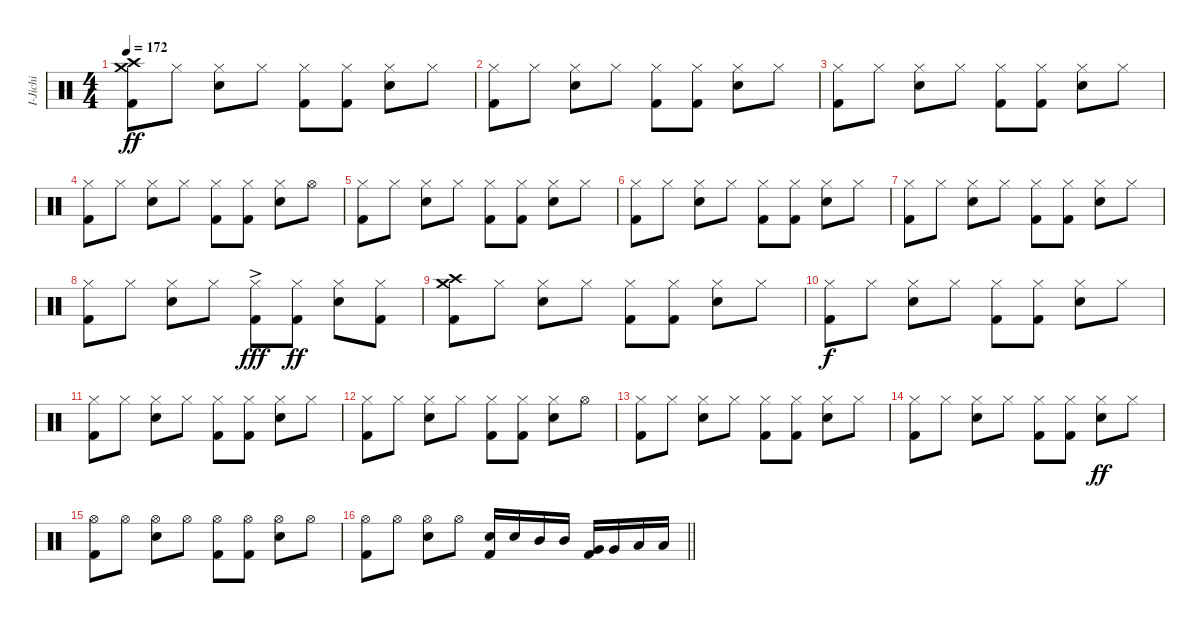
\track ("I-Jichi" "I-Jichi") {instrument percussion}
\staff {score}
\articulation defaults
\ts (4 4)
\tempo 172
\clef neutral
\ks c
("Crash high (hit)" "Crash medium (hit)" "Kick (hit) 2").8{dy ff} "Hi-Hat (closed)".8 ("Hi-Hat (closed)" "Electric Snare (hit)").8 "Hi-Hat (closed)".8 ("Hi-Hat (closed)" "Kick (hit) 2").8 ("Hi-Hat (closed)" "Kick (hit) 2").8 ("Hi-Hat (closed)" "Electric Snare (hit)").8 "Hi-Hat (closed)".8 |
("Hi-Hat (closed)" "Kick (hit) 2").8 "Hi-Hat (closed)".8 ("Hi-Hat (closed)" "Electric Snare (hit)").8 "Hi-Hat (closed)".8 ("Hi-Hat (closed)" "Kick (hit) 2").8 ("Hi-Hat (closed)" "Kick (hit) 2").8 ("Hi-Hat (closed)" "Electric Snare (hit)").8 "Hi-Hat (closed)".8 |
("Hi-Hat (closed)" "Kick (hit) 2").8 "Hi-Hat (closed)".8 ("Hi-Hat (closed)" "Electric Snare (hit)").8 "Hi-Hat (closed)".8 ("Hi-Hat (closed)" "Kick (hit) 2").8 ("Hi-Hat (closed)" "Kick (hit) 2").8 ("Hi-Hat (closed)" "Electric Snare (hit)").8 "Hi-Hat (closed)".8 |
("Hi-Hat (closed)" "Kick (hit) 2").8 "Hi-Hat (closed)".8 ("Hi-Hat (closed)" "Electric Snare (hit)").8 "Hi-Hat (closed)".8 ("Hi-Hat (closed)" "Kick (hit) 2").8 ("Hi-Hat (closed)" "Kick (hit) 2").8 ("Hi-Hat (closed)" "Electric Snare (hit)").8 "Hi-Hat (open)".8 |
("Hi-Hat (closed)" "Kick (hit) 2").8 "Hi-Hat (closed)".8 ("Hi-Hat (closed)" "Electric Snare (hit)").8 "Hi-Hat (closed)".8 ("Hi-Hat (closed)" "Kick (hit) 2").8 ("Hi-Hat (closed)" "Kick (hit) 2").8 ("Hi-Hat (closed)" "Electric Snare (hit)").8 "Hi-Hat (closed)".8 |
("Hi-Hat (closed)" "Kick (hit) 2").8 "Hi-Hat (closed)".8 ("Hi-Hat (closed)" "Electric Snare (hit)").8 "Hi-Hat (closed)".8 ("Hi-Hat (closed)" "Kick (hit) 2").8 ("Hi-Hat (closed)" "Kick (hit) 2").8 ("Hi-Hat (closed)" "Electric Snare (hit)").8 "Hi-Hat (closed)".8 |
("Hi-Hat (closed)" "Kick (hit) 2").8 "Hi-Hat (closed)".8 ("Hi-Hat (closed)" "Electric Snare (hit)").8 "Hi-Hat (closed)".8 ("Hi-Hat (closed)" "Kick (hit) 2").8 ("Hi-Hat (closed)" "Kick (hit) 2").8 ("Hi-Hat (closed)" "Electric Snare (hit)").8 "Hi-Hat (closed)".8 |
("Hi-Hat (closed)" "Kick (hit) 2").8 "Hi-Hat (closed)".8 ("Hi-Hat (closed)" "Electric Snare (hit)").8 "Hi-Hat (closed)".8 ("Hi-Hat (closed)"{ac} "Kick (hit) 2").8{dy fff} ("Hi-Hat (closed)" "Kick (hit) 2").8{dy ff} ("Hi-Hat (closed)" "Electric Snare (hit)").8 ("Hi-Hat (closed)" "Kick (hit) 2").8 |
("Crash high (hit)" "Crash medium (hit)" "Kick (hit) 2").8 "Hi-Hat (closed)".8 ("Hi-Hat (closed)" "Electric Snare (hit)").8 "Hi-Hat (closed)".8 ("Hi-Hat (closed)" "Kick (hit) 2").8 ("Hi-Hat (closed)" "Kick (hit) 2").8 ("Hi-Hat (closed)" "Electric Snare (hit)").8 "Hi-Hat (closed)".8 |
("Hi-Hat (closed)" "Kick (hit) 2").8{dy f} "Hi-Hat (closed)".8 ("Hi-Hat (closed)" "Electric Snare (hit)").8 "Hi-Hat (closed)".8 ("Hi-Hat (closed)" "Kick (hit) 2").8 ("Hi-Hat (closed)" "Kick (hit) 2").8 ("Hi-Hat (closed)" "Electric Snare (hit)").8 "Hi-Hat (closed)".8 |
("Hi-Hat (closed)" "Kick (hit) 2").8 "Hi-Hat (closed)".8 ("Hi-Hat (closed)" "Electric Snare (hit)").8 "Hi-Hat (closed)".8 ("Hi-Hat (closed)" "Kick (hit) 2").8 ("Hi-Hat (closed)" "Kick (hit) 2").8 ("Hi-Hat (closed)" "Electric Snare (hit)").8 "Hi-Hat (closed)".8 |
("Hi-Hat (closed)" "Kick (hit) 2").8 "Hi-Hat (closed)".8 ("Hi-Hat (closed)" "Electric Snare (hit)").8 "Hi-Hat (closed)".8 ("Hi-Hat (closed)" "Kick (hit) 2").8 ("Hi-Hat (closed)" "Kick (hit) 2").8 ("Hi-Hat (closed)" "Electric Snare (hit)").8 "Hi-Hat (open)".8 |
("Hi-Hat (closed)" "Kick (hit) 2").8 "Hi-Hat (closed)".8 ("Hi-Hat (closed)" "Electric Snare (hit)").8 "Hi-Hat (closed)".8 ("Hi-Hat (closed)" "Kick (hit) 2").8 ("Hi-Hat (closed)" "Kick (hit) 2").8 ("Hi-Hat (closed)" "Electric Snare (hit)").8 "Hi-Hat (closed)".8 |
("Hi-Hat (closed)" "Kick (hit) 2").8 "Hi-Hat (closed)".8 ("Hi-Hat (closed)" "Electric Snare (hit)").8 "Hi-Hat (closed)".8 ("Hi-Hat (closed)" "Kick (hit) 2").8 ("Hi-Hat (closed)" "Kick (hit) 2").8 ("Hi-Hat (closed)" "Electric Snare (hit)").8{dy ff} "Hi-Hat (closed)".8 |
("Hi-Hat (open)" "Kick (hit) 2").8 "Hi-Hat (open)".8 ("Hi-Hat (open)" "Electric Snare (hit)").8 "Hi-Hat (open)".8 ("Hi-Hat (open)" "Kick (hit) 2").8 ("Hi-Hat (open)" "Kick (hit) 2").8 ("Hi-Hat (open)" "Electric Snare (hit)").8 "Hi-Hat (open)".8 |
\barLineRight lightlight
("Hi-Hat (open)" "Kick (hit) 2").8 "Hi-Hat (open)".8 ("Hi-Hat (open)" "Electric Snare (hit)").8 "Hi-Hat (open)".8 ("Electric Snare (hit)" "Kick (hit) 2").16 "Electric Snare (hit)".16 "Mid Tom (hit)".16 "Mid Tom (hit)".16 ("Very Low Tom (hit)" "Kick (hit) 2").16 "Very Low Tom (hit)".16 "Low Floor Tom (hit)".16 "Low Floor Tom (hit)".16
